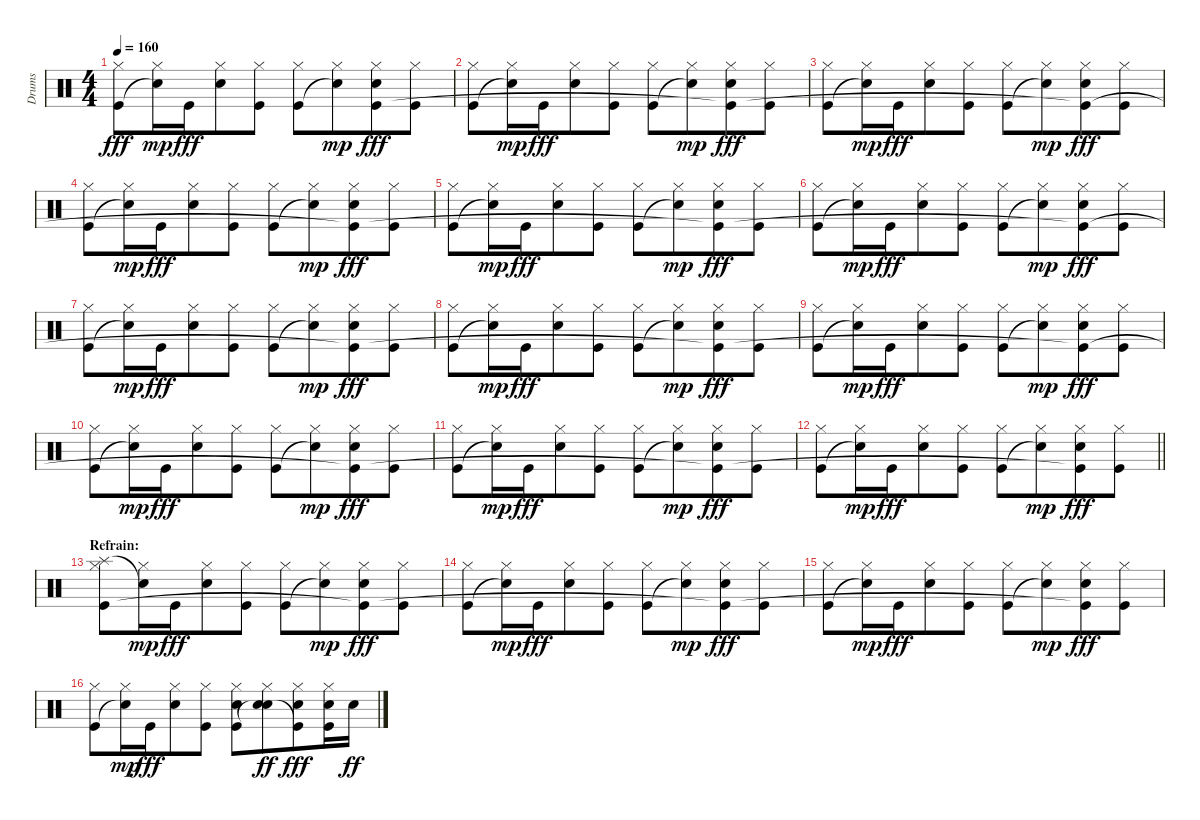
\track ("Drums" "Drums") {instrument percussion}
\staff {score}
\articulation defaults
\ts (4 4)
\tempo 160
\clef neutral
\ks c
("Hi-Hat (closed)" "Kick (hit)").8{dy fff} ("Hi-Hat (closed)" "Snare (hit)"{t}).16{dy mp} "Kick (hit)".16{dy fff beam merge} ("Hi-Hat (closed)" "Snare (hit) 2").8 ("Hi-Hat (closed)" "Kick (hit)").8 ("Hi-Hat (closed)" "Kick (hit)").8 ("Hi-Hat (closed)" "Snare (hit)"{t}).8{dy mp beam merge} ("Hi-Hat (closed)" "Snare (hit) 2" "Kick (hit)"{t}).8{dy fff} ("Hi-Hat (closed)" "Kick (hit)").8 |
("Hi-Hat (closed)" "Kick (hit)").8 ("Hi-Hat (closed)" "Snare (hit)"{t}).16{dy mp} "Kick (hit)".16{dy fff beam merge} ("Hi-Hat (closed)" "Snare (hit) 2").8 ("Hi-Hat (closed)" "Kick (hit)").8 ("Hi-Hat (closed)" "Kick (hit)").8 ("Hi-Hat (closed)" "Snare (hit)"{t}).8{dy mp beam merge} ("Hi-Hat (closed)" "Snare (hit) 2" "Kick (hit)"{t}).8{dy fff} ("Hi-Hat (closed)" "Kick (hit)").8 |
("Hi-Hat (closed)" "Kick (hit)").8 ("Hi-Hat (closed)" "Snare (hit)"{t}).16{dy mp} "Kick (hit)".16{dy fff beam merge} ("Hi-Hat (closed)" "Snare (hit) 2").8 ("Hi-Hat (closed)" "Kick (hit)").8 ("Hi-Hat (closed)" "Kick (hit)").8 ("Hi-Hat (closed)" "Snare (hit)"{t}).8{dy mp beam merge} ("Hi-Hat (closed)" "Snare (hit) 2" "Kick (hit)"{t}).8{dy fff} ("Hi-Hat (closed)" "Kick (hit)").8 |
("Hi-Hat (closed)" "Kick (hit)").8 ("Hi-Hat (closed)" "Snare (hit)"{t}).16{dy mp} "Kick (hit)".16{dy fff beam merge} ("Hi-Hat (closed)" "Snare (hit) 2").8 ("Hi-Hat (closed)" "Kick (hit)").8 ("Hi-Hat (closed)" "Kick (hit)").8 ("Hi-Hat (closed)" "Snare (hit)"{t}).8{dy mp beam merge} ("Hi-Hat (closed)" "Snare (hit) 2" "Kick (hit)"{t}).8{dy fff} ("Hi-Hat (closed)" "Kick (hit)").8 |
("Hi-Hat (closed)" "Kick (hit)").8 ("Hi-Hat (closed)" "Snare (hit)"{t}).16{dy mp} "Kick (hit)".16{dy fff beam merge} ("Hi-Hat (closed)" "Snare (hit) 2").8 ("Hi-Hat (closed)" "Kick (hit)").8 ("Hi-Hat (closed)" "Kick (hit)").8 ("Hi-Hat (closed)" "Snare (hit)"{t}).8{dy mp beam merge} ("Hi-Hat (closed)" "Snare (hit) 2" "Kick (hit)"{t}).8{dy fff} ("Hi-Hat (closed)" "Kick (hit)").8 |
("Hi-Hat (closed)" "Kick (hit)").8 ("Hi-Hat (closed)" "Snare (hit)"{t}).16{dy mp} "Kick (hit)".16{dy fff beam merge} ("Hi-Hat (closed)" "Snare (hit) 2").8 ("Hi-Hat (closed)" "Kick (hit)").8 ("Hi-Hat (closed)" "Kick (hit)").8 ("Hi-Hat (closed)" "Snare (hit)"{t}).8{dy mp beam merge} ("Hi-Hat (closed)" "Snare (hit) 2" "Kick (hit)"{t}).8{dy fff} ("Hi-Hat (closed)" "Kick (hit)").8 |
("Hi-Hat (closed)" "Kick (hit)").8 ("Hi-Hat (closed)" "Snare (hit)"{t}).16{dy mp} "Kick (hit)".16{dy fff beam merge} ("Hi-Hat (closed)" "Snare (hit) 2").8 ("Hi-Hat (closed)" "Kick (hit)").8 ("Hi-Hat (closed)" "Kick (hit)").8 ("Hi-Hat (closed)" "Snare (hit)"{t}).8{dy mp beam merge} ("Hi-Hat (closed)" "Snare (hit) 2" "Kick (hit)"{t}).8{dy fff} ("Hi-Hat (closed)" "Kick (hit)").8 |
("Hi-Hat (closed)" "Kick (hit)").8 ("Hi-Hat (closed)" "Snare (hit)"{t}).16{dy mp} "Kick (hit)".16{dy fff beam merge} ("Hi-Hat (closed)" "Snare (hit) 2").8 ("Hi-Hat (closed)" "Kick (hit)").8 ("Hi-Hat (closed)" "Kick (hit)").8 ("Hi-Hat (closed)" "Snare (hit)"{t}).8{dy mp beam merge} ("Hi-Hat (closed)" "Snare (hit) 2" "Kick (hit)"{t}).8{dy fff} ("Hi-Hat (closed)" "Kick (hit)").8 |
("Hi-Hat (closed)" "Kick (hit)").8 ("Hi-Hat (closed)" "Snare (hit)"{t}).16{dy mp} "Kick (hit)".16{dy fff beam merge} ("Hi-Hat (closed)" "Snare (hit) 2").8 ("Hi-Hat (closed)" "Kick (hit)").8 ("Hi-Hat (closed)" "Kick (hit)").8 ("Hi-Hat (closed)" "Snare (hit)"{t}).8{dy mp beam merge} ("Hi-Hat (closed)" "Snare (hit) 2" "Kick (hit)"{t}).8{dy fff} ("Hi-Hat (closed)" "Kick (hit)").8 |
("Hi-Hat (closed)" "Kick (hit)").8 ("Hi-Hat (closed)" "Snare (hit)"{t}).16{dy mp} "Kick (hit)".16{dy fff beam merge} ("Hi-Hat (closed)" "Snare (hit) 2").8 ("Hi-Hat (closed)" "Kick (hit)").8 ("Hi-Hat (closed)" "Kick (hit)").8 ("Hi-Hat (closed)" "Snare (hit)"{t}).8{dy mp beam merge} ("Hi-Hat (closed)" "Snare (hit) 2" "Kick (hit)"{t}).8{dy fff} ("Hi-Hat (closed)" "Kick (hit)").8 |
("Hi-Hat (closed)" "Kick (hit)").8 ("Hi-Hat (closed)" "Snare (hit)"{t}).16{dy mp} "Kick (hit)".16{dy fff beam merge} ("Hi-Hat (closed)" "Snare (hit) 2").8 ("Hi-Hat (closed)" "Kick (hit)").8 ("Hi-Hat (closed)" "Kick (hit)").8 ("Hi-Hat (closed)" "Snare (hit)"{t}).8{dy mp beam merge} ("Hi-Hat (closed)" "Snare (hit) 2" "Kick (hit)"{t}).8{dy fff} ("Hi-Hat (closed)" "Kick (hit)").8 |
\barLineRight lightlight
("Hi-Hat (closed)" "Kick (hit)").8 ("Hi-Hat (closed)" "Snare (hit)"{t}).16{dy mp} "Kick (hit)".16{dy fff beam merge} ("Hi-Hat (closed)" "Snare (hit) 2").8 ("Hi-Hat (closed)" "Kick (hit)").8 ("Hi-Hat (closed)" "Kick (hit)").8 ("Hi-Hat (closed)" "Snare (hit)"{t}).8{dy mp beam merge} ("Hi-Hat (closed)" "Snare (hit) 2" "Kick (hit)"{t}).8{dy fff} ("Hi-Hat (closed)" "Kick (hit)").8 |
\section ("" "Refrain:")
("Hi-Hat (closed)" "Splash (hit)" "Kick (hit)").8 ("Hi-Hat (closed)" "Snare (hit)"{t}).16{dy mp} "Kick (hit)".16{dy fff beam merge} ("Hi-Hat (closed)" "Snare (hit) 2").8 ("Hi-Hat (closed)" "Kick (hit)").8 ("Hi-Hat (closed)" "Kick (hit)").8 ("Hi-Hat (closed)" "Snare (hit)"{t}).8{dy mp beam merge} ("Hi-Hat (closed)" "Snare (hit) 2" "Kick (hit)"{t}).8{dy fff} ("Hi-Hat (closed)" "Kick (hit)").8 |
("Hi-Hat (closed)" "Kick (hit)").8 ("Hi-Hat (closed)" "Snare (hit)"{t}).16{dy mp} "Kick (hit)".16{dy fff beam merge} ("Hi-Hat (closed)" "Snare (hit) 2").8 ("Hi-Hat (closed)" "Kick (hit)").8 ("Hi-Hat (closed)" "Kick (hit)").8 ("Hi-Hat (closed)" "Snare (hit)"{t}).8{dy mp beam merge} ("Hi-Hat (closed)" "Snare (hit) 2" "Kick (hit)"{t}).8{dy fff} ("Hi-Hat (closed)" "Kick (hit)").8 |
("Hi-Hat (closed)" "Kick (hit)").8 ("Hi-Hat (closed)" "Snare (hit)"{t}).16{dy mp} "Kick (hit)".16{dy fff beam merge} ("Hi-Hat (closed)" "Snare (hit) 2").8 ("Hi-Hat (closed)" "Kick (hit)").8 ("Hi-Hat (closed)" "Kick (hit)").8 ("Hi-Hat (closed)" "Snare (hit)"{t}).8{dy mp beam merge} ("Hi-Hat (closed)" "Snare (hit) 2" "Kick (hit)"{t}).8{dy fff} ("Hi-Hat (closed)" "Kick (hit)").8 |
("Hi-Hat (closed)" "Kick (hit)").8 ("Hi-Hat (closed)" "Snare (hit)"{t}).16{dy mp} "Kick (hit)".16{dy fff beam merge} ("Hi-Hat (closed)" "Snare (hit) 2").8 ("Hi-Hat (closed)" "Kick (hit)").8 ("Hi-Hat (closed)" "Snare (hit) 2" "Kick (hit)").8 ("Hi-Hat (closed)" "Snare (hit) 2" "Snare (hit)"{t}).8{dy ff beam merge} ("Hi-Hat (closed)" "Snare (hit) 2" "Kick (hit)"{t}).8{dy fff} ("Hi-Hat (closed)" "Snare (hit) 2" "Kick (hit)").16 "Snare (hit) 2".16{dy ff}
